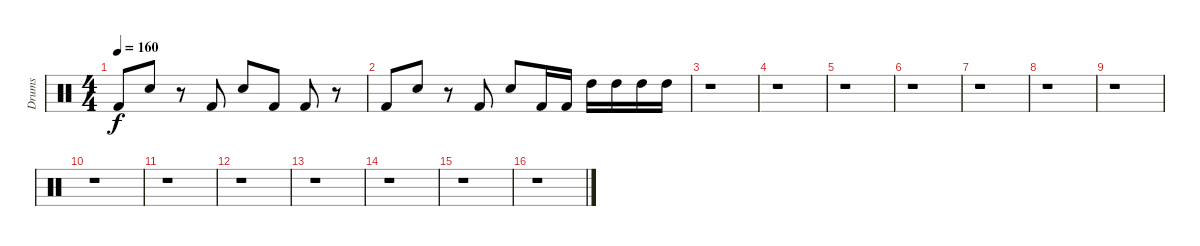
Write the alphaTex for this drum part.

\track ("Drums" "Drums") {instrument percussion}
\staff {score}
\articulation defaults
\ts (4 4)
\tempo 160
\clef neutral
\ks c "Kick (hit) 2".8{dy f} "Electric Snare (hit)".8
r.8 "Kick (hit) 2".8 "Electric Snare (hit)".8 "Kick (hit) 2".8 "Kick (hit) 2".8 r.8 |
"Kick (hit) 2".8 "Electric Snare (hit)".8 r.8 "Kick (hit) 2".8 "Electric Snare (hit)".8 "Kick (hit) 2".16 "Kick (hit) 2".16 "High Tom (hit)".16 "High Tom (hit)".16 "High Tom (hit)".16 "High Tom (hit)".16 |
\section ("" " ")
r.1 |
r.1 |
r.1 |
r.1 |
r.1 |
r.1 |
r.1 |
r.1 |
r.1 |
r.1 |
r.1 |
r.1 |
r.1 |
r.1{volume 4}
